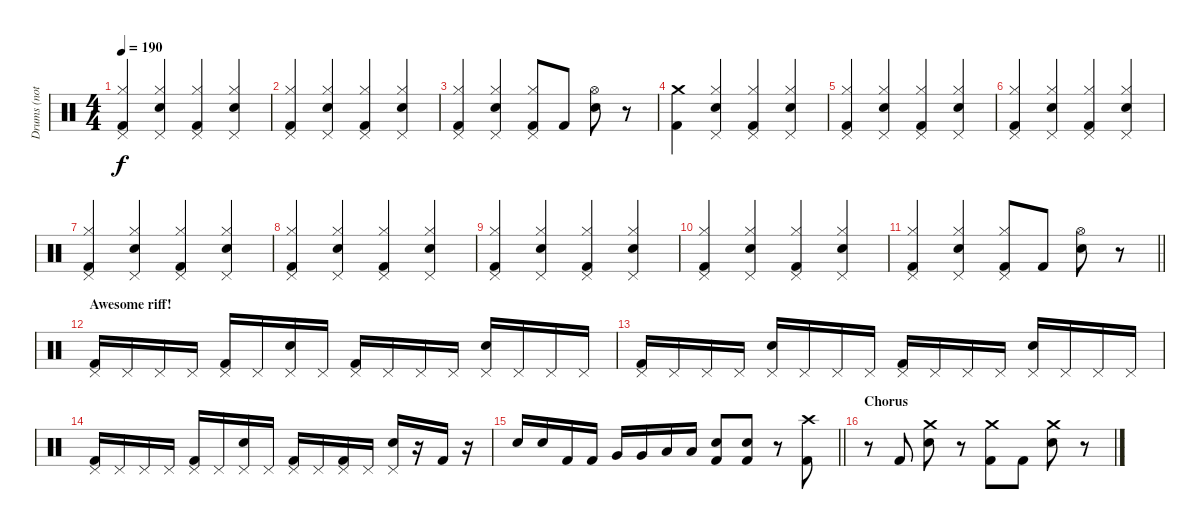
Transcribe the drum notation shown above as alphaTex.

\track ("Drums (not correct)" "Drums (not") {instrument percussion}
\staff {score}
\articulation defaults
\ts (4 4)
\tempo 190
\clef neutral
\ks c
("Pedal Hi-Hat (hit)" "Hi-Hat (closed)" "Kick (hit) 2").4{dy f} ("Pedal Hi-Hat (hit)" "Hi-Hat (closed)" "Electric Snare (hit)").4 ("Pedal Hi-Hat (hit)" "Hi-Hat (closed)" "Kick (hit) 2").4 ("Pedal Hi-Hat (hit)" "Hi-Hat (closed)" "Electric Snare (hit)").4 |
("Pedal Hi-Hat (hit)" "Hi-Hat (closed)" "Kick (hit) 2").4 ("Pedal Hi-Hat (hit)" "Hi-Hat (closed)" "Electric Snare (hit)").4 ("Pedal Hi-Hat (hit)" "Hi-Hat (closed)" "Kick (hit) 2").4 ("Pedal Hi-Hat (hit)" "Hi-Hat (closed)" "Electric Snare (hit)").4 |
("Pedal Hi-Hat (hit)" "Hi-Hat (closed)" "Kick (hit) 2").4 ("Pedal Hi-Hat (hit)" "Hi-Hat (closed)" "Electric Snare (hit)").4 ("Pedal Hi-Hat (hit)" "Hi-Hat (closed)" "Kick (hit) 2").8 "Kick (hit) 2".8 ("Hi-Hat (open)" "Electric Snare (hit)").8 r.8 |
("Crash medium (hit)" "Kick (hit) 2").4 ("Pedal Hi-Hat (hit)" "Hi-Hat (closed)" "Electric Snare (hit)").4 ("Pedal Hi-Hat (hit)" "Hi-Hat (closed)" "Kick (hit) 2").4 ("Pedal Hi-Hat (hit)" "Hi-Hat (closed)" "Electric Snare (hit)").4 |
("Pedal Hi-Hat (hit)" "Hi-Hat (closed)" "Kick (hit) 2").4 ("Pedal Hi-Hat (hit)" "Hi-Hat (closed)" "Electric Snare (hit)").4 ("Pedal Hi-Hat (hit)" "Hi-Hat (closed)" "Kick (hit) 2").4 ("Pedal Hi-Hat (hit)" "Hi-Hat (closed)" "Electric Snare (hit)").4 |
("Pedal Hi-Hat (hit)" "Hi-Hat (closed)" "Kick (hit) 2").4 ("Pedal Hi-Hat (hit)" "Hi-Hat (closed)" "Electric Snare (hit)").4 ("Pedal Hi-Hat (hit)" "Hi-Hat (closed)" "Kick (hit) 2").4 ("Pedal Hi-Hat (hit)" "Hi-Hat (closed)" "Electric Snare (hit)").4 |
("Pedal Hi-Hat (hit)" "Hi-Hat (closed)" "Kick (hit) 2").4 ("Pedal Hi-Hat (hit)" "Hi-Hat (closed)" "Electric Snare (hit)").4 ("Pedal Hi-Hat (hit)" "Hi-Hat (closed)" "Kick (hit) 2").4 ("Pedal Hi-Hat (hit)" "Hi-Hat (closed)" "Electric Snare (hit)").4 |
("Pedal Hi-Hat (hit)" "Hi-Hat (closed)" "Kick (hit) 2").4 ("Pedal Hi-Hat (hit)" "Hi-Hat (closed)" "Electric Snare (hit)").4 ("Pedal Hi-Hat (hit)" "Hi-Hat (closed)" "Kick (hit) 2").4 ("Pedal Hi-Hat (hit)" "Hi-Hat (closed)" "Electric Snare (hit)").4 |
("Pedal Hi-Hat (hit)" "Hi-Hat (closed)" "Kick (hit) 2").4 ("Pedal Hi-Hat (hit)" "Hi-Hat (closed)" "Electric Snare (hit)").4 ("Pedal Hi-Hat (hit)" "Hi-Hat (closed)" "Kick (hit) 2").4 ("Pedal Hi-Hat (hit)" "Hi-Hat (closed)" "Electric Snare (hit)").4 |
("Pedal Hi-Hat (hit)" "Hi-Hat (closed)" "Kick (hit) 2").4 ("Pedal Hi-Hat (hit)" "Hi-Hat (closed)" "Electric Snare (hit)").4 ("Pedal Hi-Hat (hit)" "Hi-Hat (closed)" "Kick (hit) 2").4 ("Pedal Hi-Hat (hit)" "Hi-Hat (closed)" "Electric Snare (hit)").4 |
\barLineRight lightlight
("Pedal Hi-Hat (hit)" "Hi-Hat (closed)" "Kick (hit) 2").4 ("Pedal Hi-Hat (hit)" "Hi-Hat (closed)" "Electric Snare (hit)").4 ("Pedal Hi-Hat (hit)" "Hi-Hat (closed)" "Kick (hit) 2").8 "Kick (hit) 2".8 ("Hi-Hat (open)" "Electric Snare (hit)").8 r.8 |
\section ("" "Awesome riff!")
("Pedal Hi-Hat (hit)" "Kick (hit) 2").16 "Pedal Hi-Hat (hit)".16 "Pedal Hi-Hat (hit)".16 "Pedal Hi-Hat (hit)".16 ("Pedal Hi-Hat (hit)" "Kick (hit) 2").16 "Pedal Hi-Hat (hit)".16 ("Pedal Hi-Hat (hit)" "Electric Snare (hit)").16 "Pedal Hi-Hat (hit)".16 ("Pedal Hi-Hat (hit)" "Kick (hit) 2").16 "Pedal Hi-Hat (hit)".16 "Pedal Hi-Hat (hit)".16 "Pedal Hi-Hat (hit)".16 ("Pedal Hi-Hat (hit)" "Electric Snare (hit)").16 "Pedal Hi-Hat (hit)".16 "Pedal Hi-Hat (hit)".16 "Pedal Hi-Hat (hit)".16 |
("Pedal Hi-Hat (hit)" "Kick (hit) 2").16 "Pedal Hi-Hat (hit)".16 "Pedal Hi-Hat (hit)".16 "Pedal Hi-Hat (hit)".16 ("Pedal Hi-Hat (hit)" "Electric Snare (hit)").16 "Pedal Hi-Hat (hit)".16 "Pedal Hi-Hat (hit)".16 "Pedal Hi-Hat (hit)".16 ("Pedal Hi-Hat (hit)" "Kick (hit) 2").16 "Pedal Hi-Hat (hit)".16 "Pedal Hi-Hat (hit)".16 "Pedal Hi-Hat (hit)".16 ("Pedal Hi-Hat (hit)" "Electric Snare (hit)").16 "Pedal Hi-Hat (hit)".16 "Pedal Hi-Hat (hit)".16 "Pedal Hi-Hat (hit)".16 |
("Pedal Hi-Hat (hit)" "Kick (hit) 2").16 "Pedal Hi-Hat (hit)".16 "Pedal Hi-Hat (hit)".16 "Pedal Hi-Hat (hit)".16 ("Pedal Hi-Hat (hit)" "Kick (hit) 2").16 "Pedal Hi-Hat (hit)".16 ("Pedal Hi-Hat (hit)" "Electric Snare (hit)").16 "Pedal Hi-Hat (hit)".16 ("Pedal Hi-Hat (hit)" "Kick (hit) 2").16 "Pedal Hi-Hat (hit)".16 ("Pedal Hi-Hat (hit)" "Kick (hit) 2").16 "Pedal Hi-Hat (hit)".16 ("Pedal Hi-Hat (hit)" "Electric Snare (hit)").16 r.16 "Kick (hit) 2".16 r.16 |
\barLineRight lightlight "Electric Snare (hit)".16 "Electric Snare (hit)".16 "Kick (hit) 2".16 "Kick (hit) 2".16 "Very Low Tom (hit)".16 "Very Low Tom (hit)".16 "Low Tom (hit)".16 "Low Tom (hit)".16
("Electric Snare (hit)" "Kick (hit) 2").8 ("Electric Snare (hit)" "Kick (hit) 2").8 r.8 ("Crash high (hit)" "Kick (hit) 2").8 |
\section ("" "Chorus")
r.8 "Kick (hit) 2".8 ("Crash medium (hit)" "Electric Snare (hit)").8 r.8 ("Crash medium (hit)" "Kick (hit) 2").8 "Kick (hit) 2".8 ("Crash medium (hit)" "Electric Snare (hit)").8 r.8
